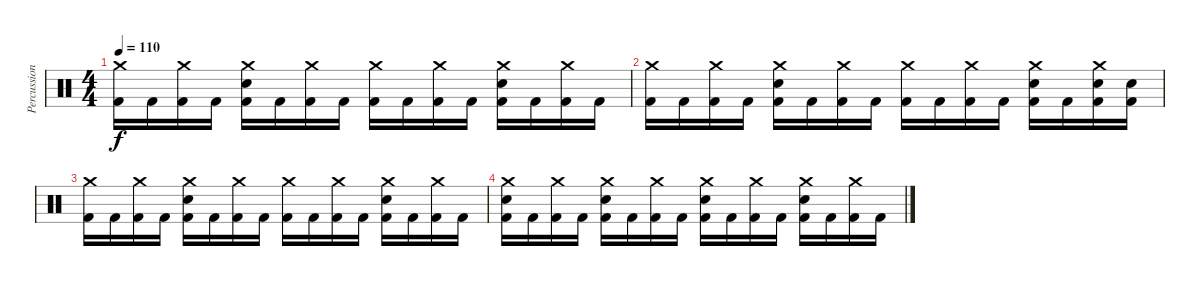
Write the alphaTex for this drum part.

\track ("Percussion" "Percussion") {instrument percussion}
\staff {score}
\articulation defaults
\ts (4 4)
\tempo 110
\clef neutral
\ks c
("Crash medium (hit)" "Kick (hit) 2").16{dy f} "Kick (hit) 2".16 ("Crash medium (hit)" "Kick (hit) 2").16 "Kick (hit) 2".16 ("Electric Snare (hit)" "Crash medium (hit)" "Kick (hit) 2").16 "Kick (hit) 2".16 ("Crash medium (hit)" "Kick (hit) 2").16 "Kick (hit) 2".16 ("Crash medium (hit)" "Kick (hit) 2").16 "Kick (hit) 2".16 ("Crash medium (hit)" "Kick (hit) 2").16 "Kick (hit) 2".16 ("Electric Snare (hit)" "Crash medium (hit)" "Kick (hit) 2").16 "Kick (hit) 2".16 ("Crash medium (hit)" "Kick (hit) 2").16 "Kick (hit) 2".16 |
("Crash medium (hit)" "Kick (hit) 2").16 "Kick (hit) 2".16 ("Crash medium (hit)" "Kick (hit) 2").16 "Kick (hit) 2".16 ("Electric Snare (hit)" "Crash medium (hit)" "Kick (hit) 2").16 "Kick (hit) 2".16 ("Crash medium (hit)" "Kick (hit) 2").16 "Kick (hit) 2".16 ("Crash medium (hit)" "Kick (hit) 2").16 "Kick (hit) 2".16 ("Crash medium (hit)" "Kick (hit) 2").16 "Kick (hit) 2".16 ("Electric Snare (hit)" "Crash medium (hit)" "Kick (hit) 2").16 "Kick (hit) 2".16 ("Electric Snare (hit)" "Crash medium (hit)" "Kick (hit) 2").16 ("Electric Snare (hit)" "Kick (hit) 2").16 |
("Crash medium (hit)" "Kick (hit) 2").16 "Kick (hit) 2".16 ("Crash medium (hit)" "Kick (hit) 2").16 "Kick (hit) 2".16 ("Electric Snare (hit)" "Crash medium (hit)" "Kick (hit) 2").16 "Kick (hit) 2".16 ("Crash medium (hit)" "Kick (hit) 2").16 "Kick (hit) 2".16 ("Crash medium (hit)" "Kick (hit) 2").16 "Kick (hit) 2".16 ("Crash medium (hit)" "Kick (hit) 2").16 "Kick (hit) 2".16 ("Electric Snare (hit)" "Crash medium (hit)" "Kick (hit) 2").16 "Kick (hit) 2".16 ("Crash medium (hit)" "Kick (hit) 2").16 "Kick (hit) 2".16 |
("Electric Snare (hit)" "Crash medium (hit)" "Kick (hit) 2").16 "Kick (hit) 2".16 ("Crash medium (hit)" "Kick (hit) 2").16 "Kick (hit) 2".16 ("Electric Snare (hit)" "Crash medium (hit)" "Kick (hit) 2").16 "Kick (hit) 2".16 ("Crash medium (hit)" "Kick (hit) 2").16 "Kick (hit) 2".16 ("Electric Snare (hit)" "Crash medium (hit)" "Kick (hit) 2").16 "Kick (hit) 2".16 ("Crash medium (hit)" "Kick (hit) 2").16 "Kick (hit) 2".16 ("Electric Snare (hit)" "Crash medium (hit)" "Kick (hit) 2").16 "Kick (hit) 2".16 ("Crash medium (hit)" "Kick (hit) 2").16 "Kick (hit) 2".16
